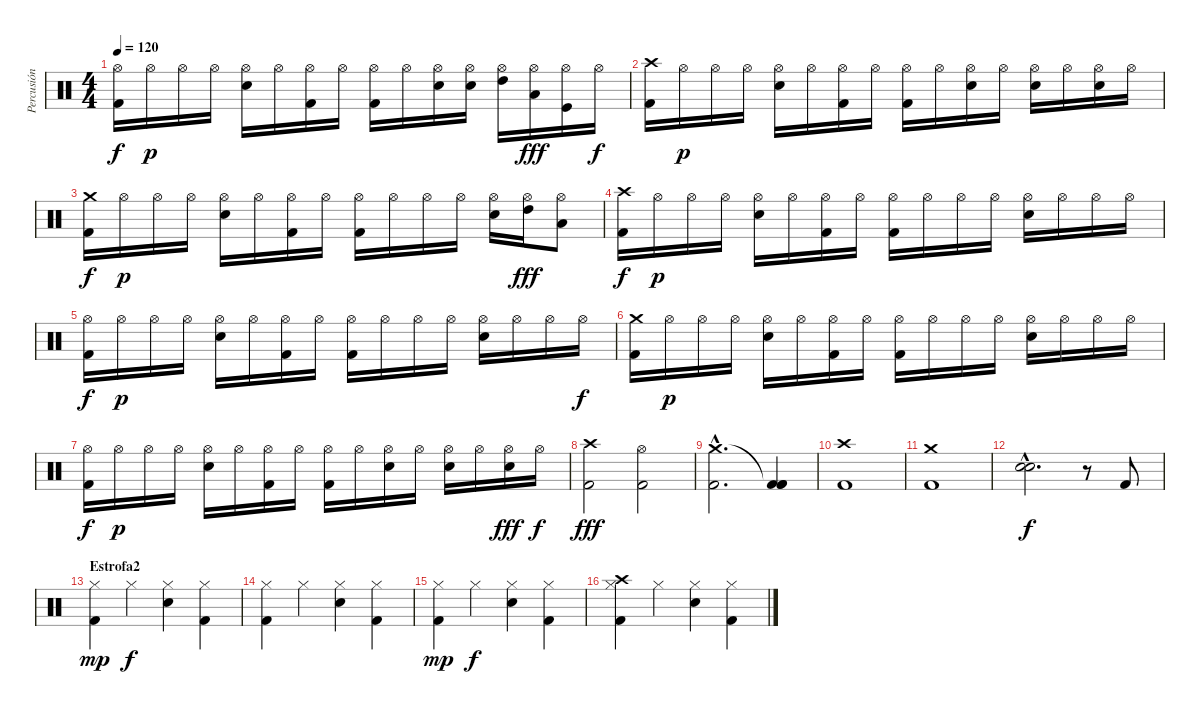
\track ("Percusión" "Percusión") {instrument percussion}
\staff {score}
\articulation defaults
\ts (4 4)
\tempo 120
\clef neutral
\ks c
("Hi-Hat (open)" "Kick (hit) 2").16{dy f} "Hi-Hat (open)".16{dy p} "Hi-Hat (open)".16 "Hi-Hat (open)".16 ("Hi-Hat (open)" "Snare (hit) 2").16 "Hi-Hat (open)".16 ("Hi-Hat (open)" "Kick (hit) 2").16 "Hi-Hat (open)".16 ("Hi-Hat (open)" "Kick (hit) 2").16 "Hi-Hat (open)".16 ("Hi-Hat (open)" "Snare (hit) 2").16 ("Hi-Hat (open)" "Snare (hit) 2").16 ("Hi-Hat (open)" "High Tom (hit)").16 ("Hi-Hat (open)" "Low Tom (hit)").16{dy fff} ("Hi-Hat (open)" "Kick (hit)").16 "Hi-Hat (open)".16{dy f} |
("Crash high (hit)" "Kick (hit) 2").16 "Hi-Hat (open)".16{dy p} "Hi-Hat (open)".16 "Hi-Hat (open)".16 ("Hi-Hat (open)" "Snare (hit) 2").16 "Hi-Hat (open)".16 ("Hi-Hat (open)" "Kick (hit) 2").16 "Hi-Hat (open)".16 ("Hi-Hat (open)" "Kick (hit) 2").16 "Hi-Hat (open)".16 ("Hi-Hat (open)" "Snare (hit) 2").16 "Hi-Hat (open)".16 ("Hi-Hat (open)" "Snare (hit) 2").16 "Hi-Hat (open)".16 ("Hi-Hat (open)" "Snare (hit) 2").16 "Hi-Hat (open)".16 |
("Crash medium (hit)" "Kick (hit) 2").16{dy f} "Hi-Hat (open)".16{dy p} "Hi-Hat (open)".16 "Hi-Hat (open)".16 ("Hi-Hat (open)" "Snare (hit) 2").16 "Hi-Hat (open)".16 ("Hi-Hat (open)" "Kick (hit) 2").16 "Hi-Hat (open)".16 ("Hi-Hat (open)" "Kick (hit) 2").16 "Hi-Hat (open)".16 "Hi-Hat (open)".16 "Hi-Hat (open)".16 ("Hi-Hat (open)" "Snare (hit) 2").16 ("Hi-Hat (open)" "High Tom (hit)").16{dy fff} ("Hi-Hat (open)" "Low Tom (hit)").8 |
("Crash high (hit)" "Kick (hit) 2").16{dy f} "Hi-Hat (open)".16{dy p} "Hi-Hat (open)".16 "Hi-Hat (open)".16 ("Hi-Hat (open)" "Snare (hit) 2").16 "Hi-Hat (open)".16 ("Hi-Hat (open)" "Kick (hit) 2").16 "Hi-Hat (open)".16 ("Hi-Hat (open)" "Kick (hit) 2").16 "Hi-Hat (open)".16 "Hi-Hat (open)".16 "Hi-Hat (open)".16 ("Hi-Hat (open)" "Snare (hit) 2").16 "Hi-Hat (open)".16 "Hi-Hat (open)".16 "Hi-Hat (open)".16 |
("Hi-Hat (open)" "Kick (hit) 2").16{dy f} "Hi-Hat (open)".16{dy p} "Hi-Hat (open)".16 "Hi-Hat (open)".16 ("Hi-Hat (open)" "Snare (hit) 2").16 "Hi-Hat (open)".16 ("Hi-Hat (open)" "Kick (hit) 2").16 "Hi-Hat (open)".16 ("Hi-Hat (open)" "Kick (hit) 2").16 "Hi-Hat (open)".16 "Hi-Hat (open)".16 "Hi-Hat (open)".16 ("Hi-Hat (open)" "Snare (hit) 2").16 "Hi-Hat (open)".16 "Hi-Hat (open)".16 "Hi-Hat (open)".16{dy f} |
("Crash medium (hit)" "Kick (hit) 2").16 "Hi-Hat (open)".16{dy p} "Hi-Hat (open)".16 "Hi-Hat (open)".16 ("Hi-Hat (open)" "Snare (hit) 2").16 "Hi-Hat (open)".16 ("Hi-Hat (open)" "Kick (hit) 2").16 "Hi-Hat (open)".16 ("Hi-Hat (open)" "Kick (hit) 2").16 "Hi-Hat (open)".16 "Hi-Hat (open)".16 "Hi-Hat (open)".16 ("Hi-Hat (open)" "Snare (hit) 2").16 "Hi-Hat (open)".16 "Hi-Hat (open)".16 "Hi-Hat (open)".16 |
("Hi-Hat (open)" "Kick (hit) 2").16{dy f} "Hi-Hat (open)".16{dy p} "Hi-Hat (open)".16 "Hi-Hat (open)".16 ("Hi-Hat (open)" "Snare (hit) 2").16 "Hi-Hat (open)".16 ("Hi-Hat (open)" "Kick (hit) 2").16 "Hi-Hat (open)".16 ("Hi-Hat (open)" "Kick (hit) 2").16 "Hi-Hat (open)".16 ("Hi-Hat (open)" "Snare (hit) 2").16 "Hi-Hat (open)".16 ("Hi-Hat (open)" "Snare (hit) 2").16 "Hi-Hat (open)".16 ("Hi-Hat (open)" "Snare (hit) 2").16{dy fff} "Hi-Hat (open)".16{dy f} |
("Crash high (hit)" "Kick (hit) 2").2{dy fff} ("Hi-Hat (open)" "Kick (hit) 2").2 |
("Crash medium (hit)"{hac} "Kick (hit) 2"{hac}).2{d} ("Kick (hit) 2"{t} "Kick (hit) 2" "Kick (hit) 2").4{bd 480} |
("Crash high (hit)" "Kick (hit) 2").1 |
("Crash medium (hit)" "Kick (hit) 2").1 |
("Snare (hit) 2"{hac} "Snare (hit) 2"{hac}).2{d bd 480 dy f} r.8 "Kick (hit) 2".8 |
\section ("" "Estrofa2")
("Hi-Hat (closed)" "Kick (hit) 2").4{dy mp} "Hi-Hat (closed)".4{dy f} ("Hi-Hat (closed)" "Snare (hit) 2").4 ("Hi-Hat (closed)" "Kick (hit) 2").4 |
("Hi-Hat (closed)" "Kick (hit) 2").4 "Hi-Hat (closed)".4 ("Hi-Hat (closed)" "Snare (hit) 2").4 ("Hi-Hat (closed)" "Kick (hit) 2").4 |
("Hi-Hat (closed)" "Kick (hit) 2").4{dy mp} "Hi-Hat (closed)".4{dy f} ("Hi-Hat (closed)" "Snare (hit) 2").4 ("Hi-Hat (closed)" "Kick (hit) 2").4 |
("Hi-Hat (closed)" "Kick (hit) 2" "Crash high (hit)").4 "Hi-Hat (closed)".4 ("Hi-Hat (closed)" "Snare (hit) 2").4 ("Hi-Hat (closed)" "Kick (hit) 2").4
